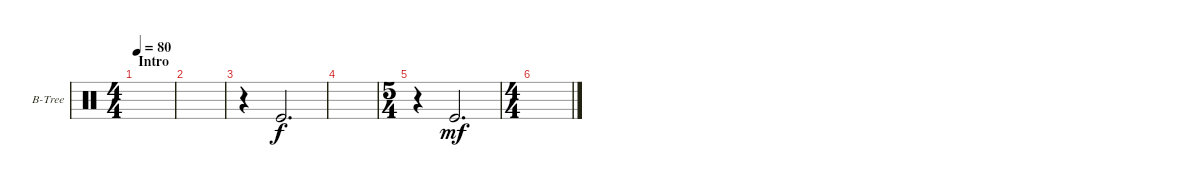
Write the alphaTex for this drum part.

\defaultSystemsLayout 4
\bracketExtendMode groupsimilarinstruments
\firstSystemTrackNameOrientation horizontal
\otherSystemsTrackNameOrientation horizontal
\track ("Bell Tree" "B-Tree") {instrument percussion}
\staff {score}
\articulation defaults
\ts (4 4)
\section ("" "Intro")
\tempo 80
\clef neutral
\scale
0.474178
\ks c
|
\scale
0.262911 |
\scale
0.262911 r.4 "Kick (hit)".2{d} |
\scale
0.333333 |
\ts (5 4)
\scale
0.333333 r.4 "Kick (hit)".2{d dy mf} |
\ts (4 4)
\scale
0.333333 |
\scale
0.333333 |
\scale
0.333333 |
\scale
0.333333 |
\scale
0.333333 |
\scale
0.333333 |
\scale
0.333333 |
\scale
0.333333 |
\scale
0.333333 |
\scale
0.333333 |
\scale
0.333333
